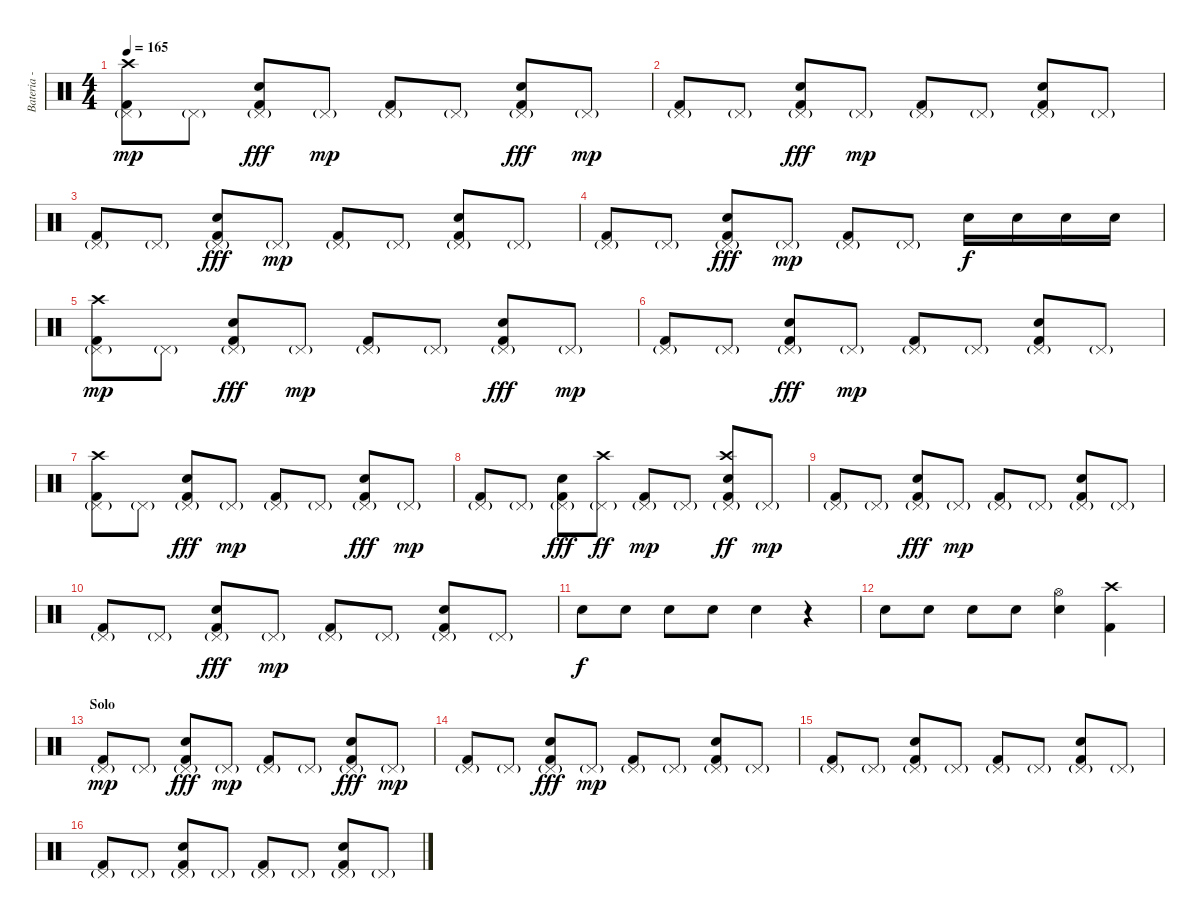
\track ("Bateria - Larzon" "Bateria - ") {instrument percussion}
\staff {score}
\articulation defaults
\ts (4 4)
\tempo 165
\clef neutral
\ks c
("Kick (hit) 2" "Pedal Hi-Hat (hit)"{g} "Crash high (hit)").8{dy mp} "Pedal Hi-Hat (hit)"{g}.8 ("Pedal Hi-Hat (hit)"{g} "Electric Snare (hit)" "Kick (hit) 2").8{dy fff} "Pedal Hi-Hat (hit)"{g}.8{dy mp} ("Kick (hit) 2" "Pedal Hi-Hat (hit)"{g}).8 "Pedal Hi-Hat (hit)"{g}.8 ("Pedal Hi-Hat (hit)"{g} "Electric Snare (hit)" "Kick (hit) 2").8{dy fff} "Pedal Hi-Hat (hit)"{g}.8{dy mp} |
("Kick (hit) 2" "Pedal Hi-Hat (hit)"{g}).8 "Pedal Hi-Hat (hit)"{g}.8 ("Pedal Hi-Hat (hit)"{g} "Electric Snare (hit)" "Kick (hit) 2").8{dy fff} "Pedal Hi-Hat (hit)"{g}.8{dy mp} ("Kick (hit) 2" "Pedal Hi-Hat (hit)"{g}).8 "Pedal Hi-Hat (hit)"{g}.8 ("Pedal Hi-Hat (hit)"{g} "Electric Snare (hit)" "Kick (hit) 2").8 "Pedal Hi-Hat (hit)"{g}.8 |
("Kick (hit) 2" "Pedal Hi-Hat (hit)"{g}).8 "Pedal Hi-Hat (hit)"{g}.8 ("Pedal Hi-Hat (hit)"{g} "Electric Snare (hit)" "Kick (hit) 2").8{dy fff} "Pedal Hi-Hat (hit)"{g}.8{dy mp} ("Kick (hit) 2" "Pedal Hi-Hat (hit)"{g}).8 "Pedal Hi-Hat (hit)"{g}.8 ("Pedal Hi-Hat (hit)"{g} "Electric Snare (hit)" "Kick (hit) 2").8 "Pedal Hi-Hat (hit)"{g}.8 |
("Kick (hit) 2" "Pedal Hi-Hat (hit)"{g}).8 "Pedal Hi-Hat (hit)"{g}.8 ("Pedal Hi-Hat (hit)"{g} "Electric Snare (hit)" "Kick (hit) 2").8{dy fff} "Pedal Hi-Hat (hit)"{g}.8{dy mp} ("Kick (hit) 2" "Pedal Hi-Hat (hit)"{g}).8 "Pedal Hi-Hat (hit)"{g}.8 "Snare (hit) 2".16{dy f} "Snare (hit) 2".16 "Snare (hit) 2".16 "Snare (hit) 2".16 |
("Kick (hit) 2" "Pedal Hi-Hat (hit)"{g} "Crash high (hit)").8{dy mp} "Pedal Hi-Hat (hit)"{g}.8 ("Pedal Hi-Hat (hit)"{g} "Electric Snare (hit)" "Kick (hit) 2").8{dy fff} "Pedal Hi-Hat (hit)"{g}.8{dy mp} ("Kick (hit) 2" "Pedal Hi-Hat (hit)"{g}).8 "Pedal Hi-Hat (hit)"{g}.8 ("Pedal Hi-Hat (hit)"{g} "Electric Snare (hit)" "Kick (hit) 2").8{dy fff} "Pedal Hi-Hat (hit)"{g}.8{dy mp} |
("Kick (hit) 2" "Pedal Hi-Hat (hit)"{g}).8 "Pedal Hi-Hat (hit)"{g}.8 ("Pedal Hi-Hat (hit)"{g} "Electric Snare (hit)" "Kick (hit) 2").8{dy fff} "Pedal Hi-Hat (hit)"{g}.8{dy mp} ("Kick (hit) 2" "Pedal Hi-Hat (hit)"{g}).8 "Pedal Hi-Hat (hit)"{g}.8 ("Pedal Hi-Hat (hit)"{g} "Electric Snare (hit)" "Kick (hit) 2").8 "Pedal Hi-Hat (hit)"{g}.8 |
("Kick (hit) 2" "Pedal Hi-Hat (hit)"{g} "Crash high (hit)").8 "Pedal Hi-Hat (hit)"{g}.8 ("Pedal Hi-Hat (hit)"{g} "Electric Snare (hit)" "Kick (hit) 2").8{dy fff} "Pedal Hi-Hat (hit)"{g}.8{dy mp} ("Kick (hit) 2" "Pedal Hi-Hat (hit)"{g}).8 "Pedal Hi-Hat (hit)"{g}.8 ("Pedal Hi-Hat (hit)"{g} "Electric Snare (hit)" "Kick (hit) 2").8{dy fff} "Pedal Hi-Hat (hit)"{g}.8{dy mp} |
("Kick (hit) 2" "Pedal Hi-Hat (hit)"{g}).8 "Pedal Hi-Hat (hit)"{g}.8 ("Pedal Hi-Hat (hit)"{g} "Electric Snare (hit)" "Kick (hit) 2").8{dy fff} ("Pedal Hi-Hat (hit)"{g} "Crash high (hit)").8{dy ff} ("Kick (hit) 2" "Pedal Hi-Hat (hit)"{g}).8{dy mp} "Pedal Hi-Hat (hit)"{g}.8 ("Pedal Hi-Hat (hit)"{g} "Electric Snare (hit)" "Kick (hit) 2" "Crash high (hit)").8{dy ff} "Pedal Hi-Hat (hit)"{g}.8{dy mp} |
("Kick (hit) 2" "Pedal Hi-Hat (hit)"{g}).8 "Pedal Hi-Hat (hit)"{g}.8 ("Pedal Hi-Hat (hit)"{g} "Electric Snare (hit)" "Kick (hit) 2").8{dy fff} "Pedal Hi-Hat (hit)"{g}.8{dy mp} ("Kick (hit) 2" "Pedal Hi-Hat (hit)"{g}).8 "Pedal Hi-Hat (hit)"{g}.8 ("Pedal Hi-Hat (hit)"{g} "Electric Snare (hit)" "Kick (hit) 2").8 "Pedal Hi-Hat (hit)"{g}.8 |
("Kick (hit) 2" "Pedal Hi-Hat (hit)"{g}).8 "Pedal Hi-Hat (hit)"{g}.8 ("Pedal Hi-Hat (hit)"{g} "Electric Snare (hit)" "Kick (hit) 2").8{dy fff} "Pedal Hi-Hat (hit)"{g}.8{dy mp} ("Kick (hit) 2" "Pedal Hi-Hat (hit)"{g}).8 "Pedal Hi-Hat (hit)"{g}.8 ("Pedal Hi-Hat (hit)"{g} "Electric Snare (hit)" "Kick (hit) 2").8 "Pedal Hi-Hat (hit)"{g}.8 |
"Snare (hit) 2".8{dy f} "Snare (hit) 2".8 "Snare (hit) 2".8 "Snare (hit) 2".8 "Snare (hit) 2".4 r.4 |
"Electric Snare (hit)".8 "Electric Snare (hit)".8 "Electric Snare (hit)".8 "Electric Snare (hit)".8 ("Electric Snare (hit)" "Hi-Hat (open)").4 ("Kick (hit) 2" "Crash high (hit)").4 |
\section ("" "Solo")
("Kick (hit) 2" "Pedal Hi-Hat (hit)"{g}).8{dy mp} "Pedal Hi-Hat (hit)"{g}.8 ("Pedal Hi-Hat (hit)"{g} "Electric Snare (hit)" "Kick (hit) 2").8{dy fff} "Pedal Hi-Hat (hit)"{g}.8{dy mp} ("Kick (hit) 2" "Pedal Hi-Hat (hit)"{g}).8 "Pedal Hi-Hat (hit)"{g}.8 ("Pedal Hi-Hat (hit)"{g} "Electric Snare (hit)" "Kick (hit) 2").8{dy fff} "Pedal Hi-Hat (hit)"{g}.8{dy mp} |
("Kick (hit) 2" "Pedal Hi-Hat (hit)"{g}).8 "Pedal Hi-Hat (hit)"{g}.8 ("Pedal Hi-Hat (hit)"{g} "Electric Snare (hit)" "Kick (hit) 2").8{dy fff} "Pedal Hi-Hat (hit)"{g}.8{dy mp} ("Kick (hit) 2" "Pedal Hi-Hat (hit)"{g}).8 "Pedal Hi-Hat (hit)"{g}.8 ("Pedal Hi-Hat (hit)"{g} "Electric Snare (hit)" "Kick (hit) 2").8 "Pedal Hi-Hat (hit)"{g}.8 |
("Kick (hit) 2" "Pedal Hi-Hat (hit)"{g}).8 "Pedal Hi-Hat (hit)"{g}.8 ("Pedal Hi-Hat (hit)"{g} "Electric Snare (hit)" "Kick (hit) 2").8 "Pedal Hi-Hat (hit)"{g}.8 ("Kick (hit) 2" "Pedal Hi-Hat (hit)"{g}).8 "Pedal Hi-Hat (hit)"{g}.8 ("Pedal Hi-Hat (hit)"{g} "Electric Snare (hit)" "Kick (hit) 2").8 "Pedal Hi-Hat (hit)"{g}.8 |
("Kick (hit) 2" "Pedal Hi-Hat (hit)"{g}).8 "Pedal Hi-Hat (hit)"{g}.8 ("Pedal Hi-Hat (hit)"{g} "Electric Snare (hit)" "Kick (hit) 2").8 "Pedal Hi-Hat (hit)"{g}.8 ("Kick (hit) 2" "Pedal Hi-Hat (hit)"{g}).8 "Pedal Hi-Hat (hit)"{g}.8 ("Pedal Hi-Hat (hit)"{g} "Electric Snare (hit)" "Kick (hit) 2").8 "Pedal Hi-Hat (hit)"{g}.8
